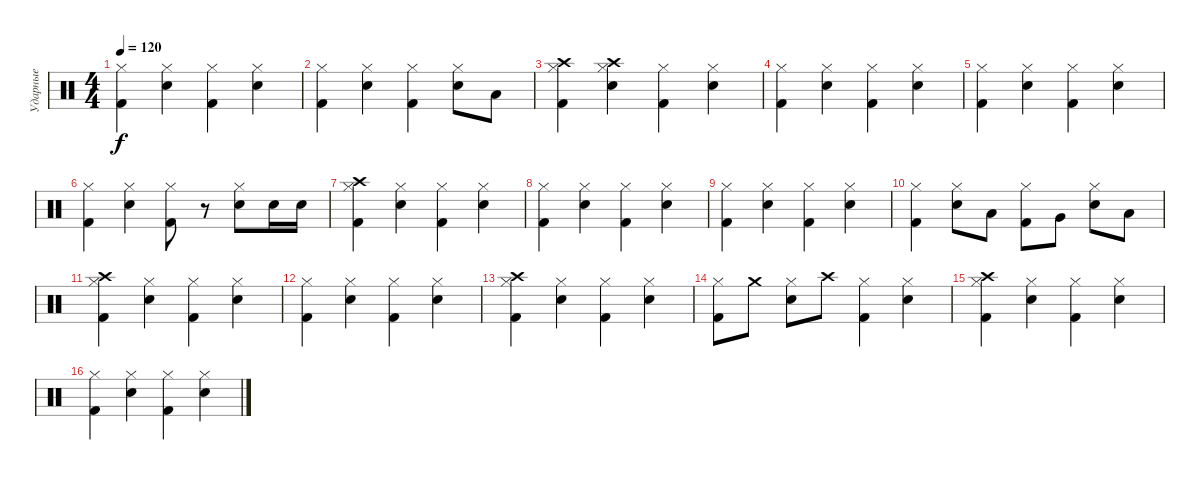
\track ("Ударные" "Ударные") {instrument percussion}
\staff {score}
\articulation defaults
\ts (4 4)
\tempo 120
\clef neutral
\ks c
("Hi-Hat (closed)" "Kick (hit) 2").4{dy f} ("Hi-Hat (closed)" "Electric Snare (hit)").4 ("Hi-Hat (closed)" "Kick (hit) 2").4 ("Hi-Hat (closed)" "Electric Snare (hit)").4 |
("Hi-Hat (closed)" "Kick (hit) 2").4 ("Hi-Hat (closed)" "Electric Snare (hit)").4 ("Hi-Hat (closed)" "Kick (hit) 2").4 ("Hi-Hat (closed)" "Electric Snare (hit)").8 "Low Tom (hit)".8 |
("Hi-Hat (closed)" "Crash high (hit)" "Kick (hit) 2").4 ("Hi-Hat (closed)" "Crash high (hit)" "Electric Snare (hit)").4 ("Hi-Hat (closed)" "Kick (hit) 2").4 ("Hi-Hat (closed)" "Electric Snare (hit)").4 |
("Hi-Hat (closed)" "Kick (hit) 2").4 ("Hi-Hat (closed)" "Electric Snare (hit)").4 ("Hi-Hat (closed)" "Kick (hit) 2").4 ("Hi-Hat (closed)" "Electric Snare (hit)").4 |
("Hi-Hat (closed)" "Kick (hit) 2").4 ("Hi-Hat (closed)" "Electric Snare (hit)").4 ("Hi-Hat (closed)" "Kick (hit) 2").4 ("Hi-Hat (closed)" "Electric Snare (hit)").4 |
("Hi-Hat (closed)" "Kick (hit) 2").4 ("Hi-Hat (closed)" "Electric Snare (hit)").4 ("Hi-Hat (closed)" "Kick (hit) 2").8 r.8 ("Hi-Hat (closed)" "Electric Snare (hit)").8 "Electric Snare (hit)".16 "Electric Snare (hit)".16 |
("Hi-Hat (closed)" "Crash high (hit)" "Kick (hit) 2").4 ("Hi-Hat (closed)" "Electric Snare (hit)").4 ("Hi-Hat (closed)" "Kick (hit) 2").4 ("Hi-Hat (closed)" "Electric Snare (hit)").4 |
("Hi-Hat (closed)" "Kick (hit) 2").4 ("Hi-Hat (closed)" "Electric Snare (hit)").4 ("Hi-Hat (closed)" "Kick (hit) 2").4 ("Hi-Hat (closed)" "Electric Snare (hit)").4 |
("Hi-Hat (closed)" "Kick (hit) 2").4 ("Hi-Hat (closed)" "Electric Snare (hit)").4 ("Hi-Hat (closed)" "Kick (hit) 2").4 ("Hi-Hat (closed)" "Electric Snare (hit)").4 |
("Hi-Hat (closed)" "Kick (hit) 2").4 ("Hi-Hat (closed)" "Electric Snare (hit)").8 "Low Tom (hit)".8 ("Hi-Hat (closed)" "Kick (hit) 2").8 "Very Low Tom (hit)".8 ("Hi-Hat (closed)" "Electric Snare (hit)").8 "Low Floor Tom (hit)".8 |
("Hi-Hat (closed)" "Crash high (hit)" "Kick (hit) 2").4 ("Hi-Hat (closed)" "Electric Snare (hit)").4 ("Hi-Hat (closed)" "Kick (hit) 2").4 ("Hi-Hat (closed)" "Electric Snare (hit)").4 |
("Hi-Hat (closed)" "Kick (hit) 2").4 ("Hi-Hat (closed)" "Electric Snare (hit)").4 ("Hi-Hat (closed)" "Kick (hit) 2").4 ("Hi-Hat (closed)" "Electric Snare (hit)").4 |
("Hi-Hat (closed)" "Kick (hit) 2" "Crash high (hit)").4 ("Hi-Hat (closed)" "Electric Snare (hit)").4 ("Hi-Hat (closed)" "Kick (hit) 2").4 ("Hi-Hat (closed)" "Electric Snare (hit)").4 |
("Hi-Hat (closed)" "Kick (hit) 2").8 "Crash medium (hit)".8 ("Electric Snare (hit)" "Hi-Hat (closed)").8 "Crash high (hit)".8 ("Hi-Hat (closed)" "Kick (hit) 2").4 ("Hi-Hat (closed)" "Electric Snare (hit)").4 |
("Hi-Hat (closed)" "Crash high (hit)" "Kick (hit) 2").4 ("Hi-Hat (closed)" "Electric Snare (hit)").4 ("Hi-Hat (closed)" "Kick (hit) 2").4 ("Hi-Hat (closed)" "Electric Snare (hit)").4 |
("Hi-Hat (closed)" "Kick (hit) 2").4 ("Hi-Hat (closed)" "Electric Snare (hit)").4 ("Hi-Hat (closed)" "Kick (hit) 2").4 ("Hi-Hat (closed)" "Electric Snare (hit)").4
